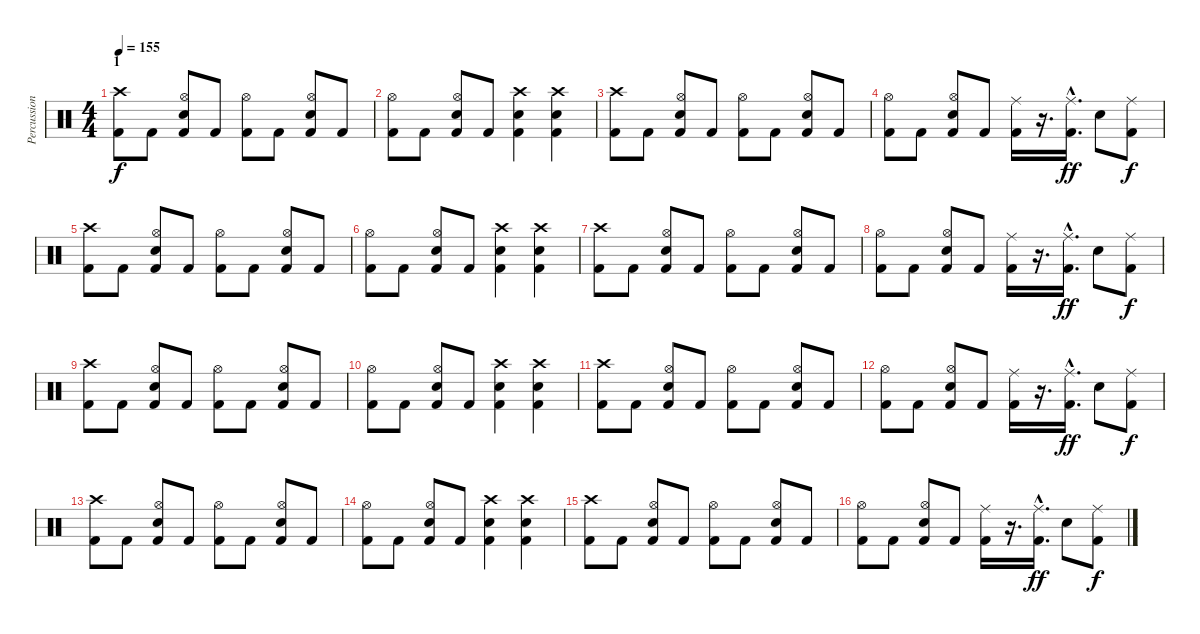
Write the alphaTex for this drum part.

\track ("Percussion" "Percussion") {instrument percussion}
\staff {score}
\articulation defaults
\ts (4 4)
\section ("" "1")
\tempo 155
\clef neutral
\ks c
("Crash high (hit)" "Kick (hit) 2").8{dy f} "Kick (hit) 2".8 ("Hi-Hat (open)" "Snare (hit) 2" "Kick (hit) 2").8 "Kick (hit) 2".8 ("Hi-Hat (open)" "Kick (hit) 2").8 "Kick (hit) 2".8 ("Hi-Hat (open)" "Snare (hit) 2" "Kick (hit) 2").8 "Kick (hit) 2".8 |
("Hi-Hat (open)" "Kick (hit) 2").8 "Kick (hit) 2".8 ("Hi-Hat (open)" "Snare (hit) 2" "Kick (hit) 2").8 "Kick (hit) 2".8 ("Crash high (hit)" "Snare (hit) 2" "Kick (hit) 2").4 ("Crash high (hit)" "Snare (hit) 2" "Kick (hit) 2").4 |
("Crash high (hit)" "Kick (hit) 2").8 "Kick (hit) 2".8 ("Hi-Hat (open)" "Snare (hit) 2" "Kick (hit) 2").8 "Kick (hit) 2".8 ("Hi-Hat (open)" "Kick (hit) 2").8 "Kick (hit) 2".8 ("Hi-Hat (open)" "Snare (hit) 2" "Kick (hit) 2").8 "Kick (hit) 2".8 |
("Hi-Hat (open)" "Kick (hit) 2").8 "Kick (hit) 2".8 ("Hi-Hat (open)" "Snare (hit) 2" "Kick (hit) 2").8 "Kick (hit) 2".8 ("Ride (middle)" "Kick (hit) 2").16 r.16{d} ("Ride (middle)"{hac} "Kick (hit) 2"{hac}).16{d dy ff} "Snare (hit) 2".8 ("Ride (middle)" "Kick (hit) 2").8{dy f} |
("Crash high (hit)" "Kick (hit) 2").8 "Kick (hit) 2".8 ("Hi-Hat (open)" "Snare (hit) 2" "Kick (hit) 2").8 "Kick (hit) 2".8 ("Hi-Hat (open)" "Kick (hit) 2").8 "Kick (hit) 2".8 ("Hi-Hat (open)" "Snare (hit) 2" "Kick (hit) 2").8 "Kick (hit) 2".8 |
("Hi-Hat (open)" "Kick (hit) 2").8 "Kick (hit) 2".8 ("Hi-Hat (open)" "Snare (hit) 2" "Kick (hit) 2").8 "Kick (hit) 2".8 ("Crash high (hit)" "Snare (hit) 2" "Kick (hit) 2").4 ("Crash high (hit)" "Snare (hit) 2" "Kick (hit) 2").4 |
("Crash high (hit)" "Kick (hit) 2").8 "Kick (hit) 2".8 ("Hi-Hat (open)" "Snare (hit) 2" "Kick (hit) 2").8 "Kick (hit) 2".8 ("Hi-Hat (open)" "Kick (hit) 2").8 "Kick (hit) 2".8 ("Hi-Hat (open)" "Snare (hit) 2" "Kick (hit) 2").8 "Kick (hit) 2".8 |
("Hi-Hat (open)" "Kick (hit) 2").8 "Kick (hit) 2".8 ("Hi-Hat (open)" "Snare (hit) 2" "Kick (hit) 2").8 "Kick (hit) 2".8 ("Ride (middle)" "Kick (hit) 2").16 r.16{d} ("Ride (middle)"{hac} "Kick (hit) 2"{hac}).16{d dy ff} "Snare (hit) 2".8 ("Ride (middle)" "Kick (hit) 2").8{dy f} |
("Crash high (hit)" "Kick (hit) 2").8 "Kick (hit) 2".8 ("Hi-Hat (open)" "Snare (hit) 2" "Kick (hit) 2").8 "Kick (hit) 2".8 ("Hi-Hat (open)" "Kick (hit) 2").8 "Kick (hit) 2".8 ("Hi-Hat (open)" "Snare (hit) 2" "Kick (hit) 2").8 "Kick (hit) 2".8 |
("Hi-Hat (open)" "Kick (hit) 2").8 "Kick (hit) 2".8 ("Hi-Hat (open)" "Snare (hit) 2" "Kick (hit) 2").8 "Kick (hit) 2".8 ("Crash high (hit)" "Snare (hit) 2" "Kick (hit) 2").4 ("Crash high (hit)" "Snare (hit) 2" "Kick (hit) 2").4 |
("Crash high (hit)" "Kick (hit) 2").8 "Kick (hit) 2".8 ("Hi-Hat (open)" "Snare (hit) 2" "Kick (hit) 2").8 "Kick (hit) 2".8 ("Hi-Hat (open)" "Kick (hit) 2").8 "Kick (hit) 2".8 ("Hi-Hat (open)" "Snare (hit) 2" "Kick (hit) 2").8 "Kick (hit) 2".8 |
("Hi-Hat (open)" "Kick (hit) 2").8 "Kick (hit) 2".8 ("Hi-Hat (open)" "Snare (hit) 2" "Kick (hit) 2").8 "Kick (hit) 2".8 ("Ride (middle)" "Kick (hit) 2").16 r.16{d} ("Ride (middle)"{hac} "Kick (hit) 2"{hac}).16{d dy ff} "Snare (hit) 2".8 ("Ride (middle)" "Kick (hit) 2").8{dy f} |
("Crash high (hit)" "Kick (hit) 2").8 "Kick (hit) 2".8 ("Hi-Hat (open)" "Snare (hit) 2" "Kick (hit) 2").8 "Kick (hit) 2".8 ("Hi-Hat (open)" "Kick (hit) 2").8 "Kick (hit) 2".8 ("Hi-Hat (open)" "Snare (hit) 2" "Kick (hit) 2").8 "Kick (hit) 2".8 |
("Hi-Hat (open)" "Kick (hit) 2").8 "Kick (hit) 2".8 ("Hi-Hat (open)" "Snare (hit) 2" "Kick (hit) 2").8 "Kick (hit) 2".8 ("Crash high (hit)" "Snare (hit) 2" "Kick (hit) 2").4 ("Crash high (hit)" "Snare (hit) 2" "Kick (hit) 2").4 |
("Crash high (hit)" "Kick (hit) 2").8 "Kick (hit) 2".8 ("Hi-Hat (open)" "Snare (hit) 2" "Kick (hit) 2").8 "Kick (hit) 2".8 ("Hi-Hat (open)" "Kick (hit) 2").8 "Kick (hit) 2".8 ("Hi-Hat (open)" "Snare (hit) 2" "Kick (hit) 2").8 "Kick (hit) 2".8 |
("Hi-Hat (open)" "Kick (hit) 2").8 "Kick (hit) 2".8 ("Hi-Hat (open)" "Snare (hit) 2" "Kick (hit) 2").8 "Kick (hit) 2".8 ("Ride (middle)" "Kick (hit) 2").16 r.16{d} ("Ride (middle)"{hac} "Kick (hit) 2"{hac}).16{d dy ff} "Snare (hit) 2".8 ("Ride (middle)" "Kick (hit) 2").8{dy f}
